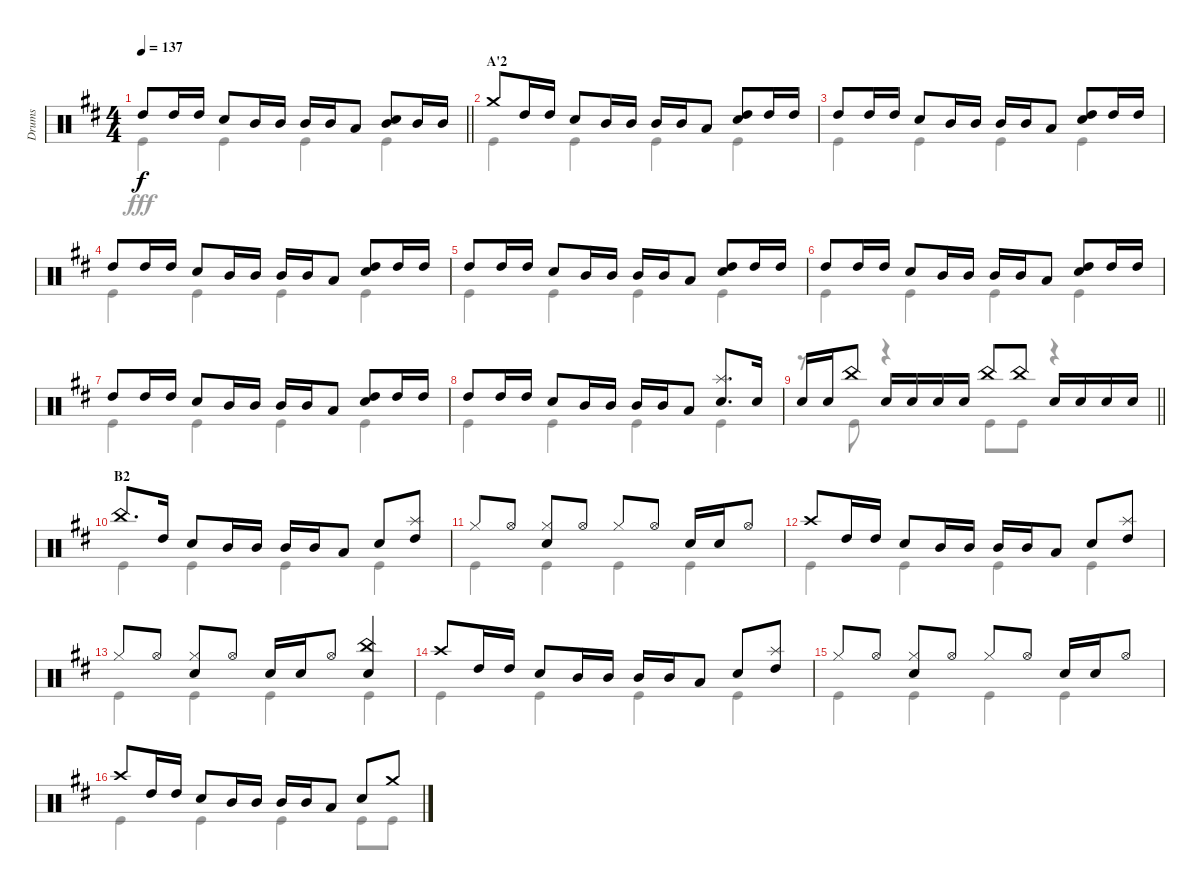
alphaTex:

\track ("Drums" "Drums") {instrument percussion}
\staff {score}
\articulation defaults
\voice
\ts (4 4)
\tempo 137
\clef neutral
\barLineRight lightlight
\ks d "High Tom (hit)".8{dy f} "High Tom (hit)".16 "High Tom (hit)".16 "Snare (hit) 2".8 "Mid Tom (hit)".16 "Mid Tom (hit)".16 "Mid Tom (hit)".16 "Mid Tom (hit)".16 "Low Tom (hit)".8
("Mid Tom (hit)" "Snare (hit) 2").8 "Mid Tom (hit)".16 "Mid Tom (hit)".16 |
\section ("" "A'2")
"Crash medium (hit)".8 "High Tom (hit)".16 "High Tom (hit)".16 "Snare (hit) 2".8 "Mid Tom (hit)".16 "Mid Tom (hit)".16 "Mid Tom (hit)".16 "Mid Tom (hit)".16 "Low Tom (hit)".8 ("Snare (hit) 2" "High Tom (hit)").8 "High Tom (hit)".16 "High Tom (hit)".16 |
"High Tom (hit)".8 "High Tom (hit)".16 "High Tom (hit)".16 "Snare (hit) 2".8 "Mid Tom (hit)".16 "Mid Tom (hit)".16 "Mid Tom (hit)".16 "Mid Tom (hit)".16 "Low Tom (hit)".8 ("Snare (hit) 2" "High Tom (hit)").8 "High Tom (hit)".16 "High Tom (hit)".16 |
"High Tom (hit)".8 "High Tom (hit)".16 "High Tom (hit)".16 "Snare (hit) 2".8 "Mid Tom (hit)".16 "Mid Tom (hit)".16 "Mid Tom (hit)".16 "Mid Tom (hit)".16 "Low Tom (hit)".8 ("Snare (hit) 2" "High Tom (hit)").8 "High Tom (hit)".16 "High Tom (hit)".16 |
"High Tom (hit)".8 "High Tom (hit)".16 "High Tom (hit)".16 "Snare (hit) 2".8 "Mid Tom (hit)".16 "Mid Tom (hit)".16 "Mid Tom (hit)".16 "Mid Tom (hit)".16 "Low Tom (hit)".8 ("Snare (hit) 2" "High Tom (hit)").8 "High Tom (hit)".16 "High Tom (hit)".16 |
"High Tom (hit)".8 "High Tom (hit)".16 "High Tom (hit)".16 "Snare (hit) 2".8 "Mid Tom (hit)".16 "Mid Tom (hit)".16 "Mid Tom (hit)".16 "Mid Tom (hit)".16 "Low Tom (hit)".8 ("Snare (hit) 2" "High Tom (hit)").8 "High Tom (hit)".16 "High Tom (hit)".16 |
"High Tom (hit)".8 "High Tom (hit)".16 "High Tom (hit)".16 "Snare (hit) 2".8 "Mid Tom (hit)".16 "Mid Tom (hit)".16 "Mid Tom (hit)".16 "Mid Tom (hit)".16 "Low Tom (hit)".8 ("Snare (hit) 2" "High Tom (hit)").8 "High Tom (hit)".16 "High Tom (hit)".16 |
"High Tom (hit)".8 "High Tom (hit)".16 "High Tom (hit)".16 "Snare (hit) 2".8 "Mid Tom (hit)".16 "Mid Tom (hit)".16 "Mid Tom (hit)".16 "Mid Tom (hit)".16 "Low Tom (hit)".8 ("Splash (hit)" "Snare (hit) 2").8{d} "Snare (hit) 2".16 |
\barLineRight lightlight "Snare (hit) 2".16 "Snare (hit) 2".16 "China (hit)".8 "Snare (hit) 2".16 "Snare (hit) 2".16 "Snare (hit) 2".16 "Snare (hit) 2".16 "China (hit)".8 "China (hit)".8 "Snare (hit) 2".16 "Snare (hit) 2".16 "Snare (hit) 2".16 "Snare (hit) 2".16
|
\section ("" "B2")
"China (hit)".8{d} "High Tom (hit)".16 "Snare (hit) 2".8 "Mid Tom (hit)".16 "Mid Tom (hit)".16 "Mid Tom (hit)".16 "Mid Tom (hit)".16 "Low Tom (hit)".8 "Snare (hit) 2".8 ("Splash (hit)" "High Tom (hit)").8 |
"Hi-Hat (closed)".8 "Hi-Hat (open)".8 ("Hi-Hat (closed)" "Snare (hit) 2").8 "Hi-Hat (open)".8 "Hi-Hat (closed)".8 "Hi-Hat (open)".8 "Snare (hit) 2".16 "Snare (hit) 2".16 "Hi-Hat (open)".8 |
"Crash high (hit)".8 "High Tom (hit)".16 "High Tom (hit)".16 "Snare (hit) 2".8 "Mid Tom (hit)".16 "Mid Tom (hit)".16 "Mid Tom (hit)".16 "Mid Tom (hit)".16 "Low Tom (hit)".8 "Snare (hit) 2".8 ("Splash (hit)" "High Tom (hit)").8 |
"Hi-Hat (closed)".8 "Hi-Hat (open)".8 ("Hi-Hat (closed)" "Snare (hit) 2").8 "Hi-Hat (open)".8 "Snare (hit) 2".16 "Snare (hit) 2".16 "Hi-Hat (open)".8 ("China (hit)" "Snare (hit) 2").4 |
"Crash high (hit)".8 "High Tom (hit)".16 "High Tom (hit)".16 "Snare (hit) 2".8 "Mid Tom (hit)".16 "Mid Tom (hit)".16 "Mid Tom (hit)".16 "Mid Tom (hit)".16 "Low Tom (hit)".8 "Snare (hit) 2".8 ("Splash (hit)" "High Tom (hit)").8 |
"Hi-Hat (closed)".8 "Hi-Hat (open)".8 ("Hi-Hat (closed)" "Snare (hit) 2").8 "Hi-Hat (open)".8 "Hi-Hat (closed)".8 "Hi-Hat (open)".8 "Snare (hit) 2".16 "Snare (hit) 2".16 "Hi-Hat (open)".8 |
"Crash high (hit)".8 "High Tom (hit)".16 "High Tom (hit)".16 "Snare (hit) 2".8 "Mid Tom (hit)".16 "Mid Tom (hit)".16 "Mid Tom (hit)".16 "Mid Tom (hit)".16 "Low Tom (hit)".8 "Snare (hit) 2".8 "Crash medium (hit)".8
\voice
\clef neutral
\ottava regular
\simile none
\barLineRight lightlight
\ks d "Kick (hit)".4{dy fff} "Kick (hit)".4 "Kick (hit)".4 "Kick (hit)".4
|
"Kick (hit)".4 "Kick (hit)".4 "Kick (hit)".4 "Kick (hit)".4 |
"Kick (hit)".4 "Kick (hit)".4 "Kick (hit)".4 "Kick (hit)".4 |
"Kick (hit)".4 "Kick (hit)".4 "Kick (hit)".4 "Kick (hit)".4 |
"Kick (hit)".4 "Kick (hit)".4 "Kick (hit)".4 "Kick (hit)".4 |
"Kick (hit)".4 "Kick (hit)".4 "Kick (hit)".4 "Kick (hit)".4 |
"Kick (hit)".4 "Kick (hit)".4 "Kick (hit)".4 "Kick (hit)".4 |
"Kick (hit)".4 "Kick (hit)".4 "Kick (hit)".4 "Kick (hit)".4 |
\barLineRight lightlight
r.8 "Kick (hit)".8 r.4 "Kick (hit)".8 "Kick (hit)".8 r.4 |
"Kick (hit)".4 "Kick (hit)".4 "Kick (hit)".4 "Kick (hit)".4 |
"Kick (hit)".4 "Kick (hit)".4 "Kick (hit)".4 "Kick (hit)".4 |
"Kick (hit)".4 "Kick (hit)".4 "Kick (hit)".4 "Kick (hit)".4 |
"Kick (hit)".4 "Kick (hit)".4 "Kick (hit)".4 "Kick (hit)".4 |
"Kick (hit)".4 "Kick (hit)".4 "Kick (hit)".4 "Kick (hit)".4 |
"Kick (hit)".4 "Kick (hit)".4 "Kick (hit)".4 "Kick (hit)".4 |
"Kick (hit)".4 "Kick (hit)".4 "Kick (hit)".4 "Kick (hit)".8 "Kick (hit)".8
